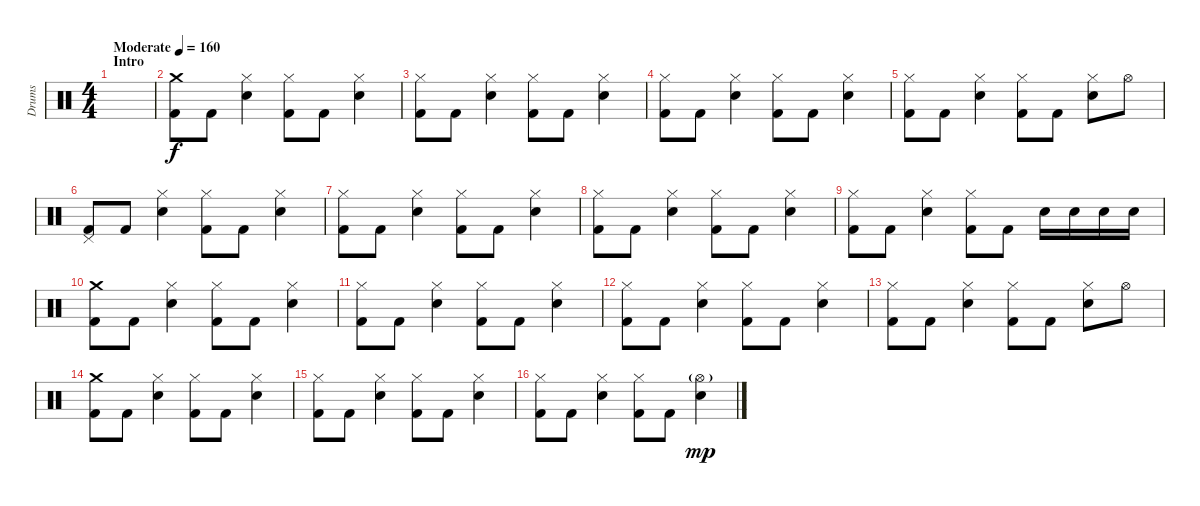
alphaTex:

\track ("Drums" "Drums") {instrument percussion}
\staff {score}
\articulation defaults
\ts (4 4)
\section ("" "Intro")
\tempo (160 "Moderate")
\clef neutral
\ks c
|
("Crash medium (hit)" "Kick (hit) 2").8 "Kick (hit) 2".8 ("Hi-Hat (closed)" "Electric Snare (hit)").4 ("Hi-Hat (closed)" "Kick (hit) 2").8 "Kick (hit) 2".8 ("Hi-Hat (closed)" "Electric Snare (hit)").4 |
("Hi-Hat (closed)" "Kick (hit) 2").8 "Kick (hit) 2".8 ("Hi-Hat (closed)" "Electric Snare (hit)").4 ("Hi-Hat (closed)" "Kick (hit) 2").8 "Kick (hit) 2".8 ("Hi-Hat (closed)" "Electric Snare (hit)").4 |
("Hi-Hat (closed)" "Kick (hit) 2").8 "Kick (hit) 2".8 ("Hi-Hat (closed)" "Electric Snare (hit)").4 ("Hi-Hat (closed)" "Kick (hit) 2").8 "Kick (hit) 2".8 ("Hi-Hat (closed)" "Electric Snare (hit)").4 |
("Hi-Hat (closed)" "Kick (hit) 2").8 "Kick (hit) 2".8 ("Hi-Hat (closed)" "Electric Snare (hit)").4 ("Hi-Hat (closed)" "Kick (hit) 2").8 "Kick (hit) 2".8 ("Hi-Hat (closed)" "Electric Snare (hit)").8 "Hi-Hat (open)".8 |
("Pedal Hi-Hat (hit)" "Kick (hit) 2").8 "Kick (hit) 2".8 ("Hi-Hat (closed)" "Electric Snare (hit)").4 ("Hi-Hat (closed)" "Kick (hit) 2").8 "Kick (hit) 2".8 ("Hi-Hat (closed)" "Electric Snare (hit)").4 |
("Hi-Hat (closed)" "Kick (hit) 2").8 "Kick (hit) 2".8 ("Hi-Hat (closed)" "Electric Snare (hit)").4 ("Hi-Hat (closed)" "Kick (hit) 2").8 "Kick (hit) 2".8 ("Hi-Hat (closed)" "Electric Snare (hit)").4 |
("Hi-Hat (closed)" "Kick (hit) 2").8 "Kick (hit) 2".8 ("Hi-Hat (closed)" "Electric Snare (hit)").4 ("Hi-Hat (closed)" "Kick (hit) 2").8 "Kick (hit) 2".8 ("Hi-Hat (closed)" "Electric Snare (hit)").4 |
("Hi-Hat (closed)" "Kick (hit) 2").8 "Kick (hit) 2".8 ("Hi-Hat (closed)" "Electric Snare (hit)").4 ("Hi-Hat (closed)" "Kick (hit) 2").8 "Kick (hit) 2".8 "Electric Snare (hit)".16 "Electric Snare (hit)".16 "Electric Snare (hit)".16 "Electric Snare (hit)".16 |
("Crash medium (hit)" "Kick (hit) 2").8 "Kick (hit) 2".8 ("Hi-Hat (closed)" "Electric Snare (hit)").4 ("Hi-Hat (closed)" "Kick (hit) 2").8 "Kick (hit) 2".8 ("Hi-Hat (closed)" "Electric Snare (hit)").4 |
("Hi-Hat (closed)" "Kick (hit) 2").8 "Kick (hit) 2".8 ("Hi-Hat (closed)" "Electric Snare (hit)").4 ("Hi-Hat (closed)" "Kick (hit) 2").8 "Kick (hit) 2".8 ("Hi-Hat (closed)" "Electric Snare (hit)").4 |
("Hi-Hat (closed)" "Kick (hit) 2").8 "Kick (hit) 2".8 ("Hi-Hat (closed)" "Electric Snare (hit)").4 ("Hi-Hat (closed)" "Kick (hit) 2").8 "Kick (hit) 2".8 ("Hi-Hat (closed)" "Electric Snare (hit)").4 |
("Hi-Hat (closed)" "Kick (hit) 2").8 "Kick (hit) 2".8 ("Hi-Hat (closed)" "Electric Snare (hit)").4 ("Hi-Hat (closed)" "Kick (hit) 2").8 "Kick (hit) 2".8 ("Hi-Hat (closed)" "Electric Snare (hit)").8 "Hi-Hat (open)".8 |
("Crash medium (hit)" "Kick (hit) 2").8 "Kick (hit) 2".8 ("Hi-Hat (closed)" "Electric Snare (hit)").4 ("Hi-Hat (closed)" "Kick (hit) 2").8 "Kick (hit) 2".8 ("Hi-Hat (closed)" "Electric Snare (hit)").4 |
("Hi-Hat (closed)" "Kick (hit) 2").8 "Kick (hit) 2".8 ("Hi-Hat (closed)" "Electric Snare (hit)").4 ("Hi-Hat (closed)" "Kick (hit) 2").8 "Kick (hit) 2".8 ("Hi-Hat (closed)" "Electric Snare (hit)").4 |
("Hi-Hat (closed)" "Kick (hit) 2").8 "Kick (hit) 2".8 ("Hi-Hat (closed)" "Electric Snare (hit)").4 ("Hi-Hat (closed)" "Kick (hit) 2").8 "Kick (hit) 2".8 ("Hi-Hat (open)"{g} "Electric Snare (hit)").4{dy mp}
